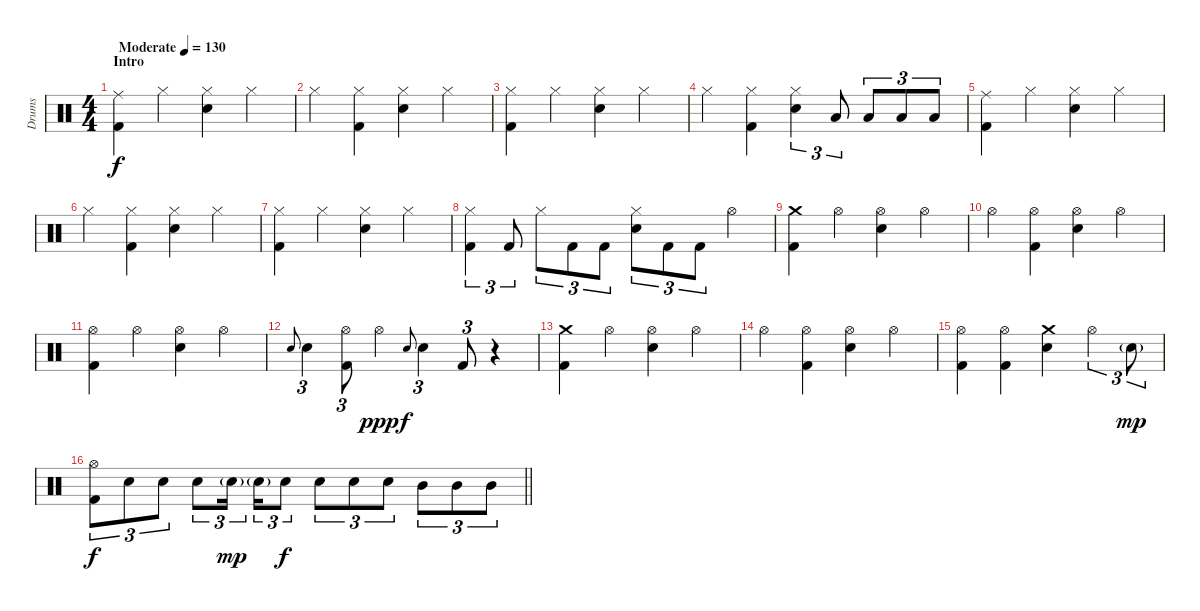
\track ("Drums" "Drums") {instrument percussion}
\staff {score}
\articulation defaults
\ts (4 4)
\section ("" "Intro")
\tempo (130 "Moderate")
\clef neutral
\ks c
("Ride (middle)" "Kick (hit) 2").4{dy f volume 10} "Hi-Hat (closed)".4 ("Hi-Hat (closed)" "Electric Snare (hit)").4 "Hi-Hat (closed)".4 |
"Hi-Hat (closed)".4 ("Hi-Hat (closed)" "Kick (hit) 2").4 ("Hi-Hat (closed)" "Electric Snare (hit)").4 "Hi-Hat (closed)".4 |
("Hi-Hat (closed)" "Kick (hit) 2").4 "Hi-Hat (closed)".4 ("Hi-Hat (closed)" "Electric Snare (hit)").4 "Hi-Hat (closed)".4 |
"Hi-Hat (closed)".4 ("Hi-Hat (closed)" "Kick (hit) 2").4 ("Hi-Hat (closed)" "Electric Snare (hit)").4{tu (3 2)} "Low Tom (hit)".8{tu (3 2)} "Low Tom (hit)".8{tu (3 2)} "Low Tom (hit)".8{tu (3 2)} "Low Tom (hit)".8{tu (3 2)} |
("Ride (middle)" "Kick (hit) 2").4 "Hi-Hat (closed)".4 ("Hi-Hat (closed)" "Electric Snare (hit)").4 "Hi-Hat (closed)".4 |
"Hi-Hat (closed)".4 ("Hi-Hat (closed)" "Kick (hit) 2").4 ("Hi-Hat (closed)" "Electric Snare (hit)").4 "Hi-Hat (closed)".4 |
("Hi-Hat (closed)" "Kick (hit) 2").4 "Hi-Hat (closed)".4 ("Hi-Hat (closed)" "Electric Snare (hit)").4 "Hi-Hat (closed)".4 |
("Hi-Hat (closed)" "Kick (hit) 2").4{tu (3 2)} "Kick (hit) 2".8{tu (3 2)} "Hi-Hat (closed)".8{tu (3 2)} "Kick (hit) 2".8{tu (3 2)} "Kick (hit) 2".8{tu (3 2)} ("Electric Snare (hit)" "Hi-Hat (closed)").8{tu (3 2)} "Kick (hit) 2".8{tu (3 2)} "Kick (hit) 2".8{tu (3 2)} "Hi-Hat (open)".4 |
("Kick (hit) 2" "Crash medium (hit)").4 "Hi-Hat (open)".4 ("Hi-Hat (open)" "Electric Snare (hit)").4 "Hi-Hat (open)".4 |
"Hi-Hat (open)".4 ("Hi-Hat (open)" "Kick (hit) 2").4 ("Hi-Hat (open)" "Electric Snare (hit)").4 "Hi-Hat (open)".4 |
("Kick (hit) 2" "Hi-Hat (open)").4 "Hi-Hat (open)".4 ("Hi-Hat (open)" "Electric Snare (hit)").4 "Hi-Hat (open)".4 |
"Electric Snare (hit)".8{gr onbeat} "Electric Snare (hit)".4{tu (3 2)} ("Hi-Hat (open)" "Kick (hit) 2").8{tu (3 2)} "Hi-Hat (open)".4{dy ppp} "Electric Snare (hit)".8{gr onbeat dy f} "Electric Snare (hit)".4{tu (3 2)} "Kick (hit) 2".8{tu (3 2)} r.4 |
("Kick (hit) 2" "Crash medium (hit)").4 "Hi-Hat (open)".4 ("Hi-Hat (open)" "Electric Snare (hit)").4 "Hi-Hat (open)".4 |
"Hi-Hat (open)".4 ("Hi-Hat (open)" "Kick (hit) 2").4 ("Hi-Hat (open)" "Electric Snare (hit)").4 "Hi-Hat (open)".4 |
("Kick (hit) 2" "Hi-Hat (open)").4 ("Kick (hit) 2" "Hi-Hat (open)").4 ("Crash medium (hit)" "Electric Snare (hit)").4 "Hi-Hat (open)".4{tu (3 2)} "Electric Snare (hit)"{g}.8{tu (3 2) dy mp} |
\barLineRight lightlight
("Hi-Hat (open)" "Kick (hit) 2").8{tu (3 2) dy f} "Electric Snare (hit)".8{tu (3 2)} "Electric Snare (hit)".8{tu (3 2)} "Electric Snare (hit)".8{tu (3 2)} "Electric Snare (hit)"{g}.16{tu (3 2) dy mp beam splitsecondary} "Electric Snare (hit)"{g}.16{tu (3 2)} "Electric Snare (hit)".8{tu (3 2) dy f} "Electric Snare (hit)".8{tu (3 2)} "Electric Snare (hit)".8{tu (3 2)} "Electric Snare (hit)".8{tu (3 2)} "Mid Tom (hit)".8{tu (3 2)} "Mid Tom (hit)".8{tu (3 2)} "Mid Tom (hit)".8{tu (3 2)}
